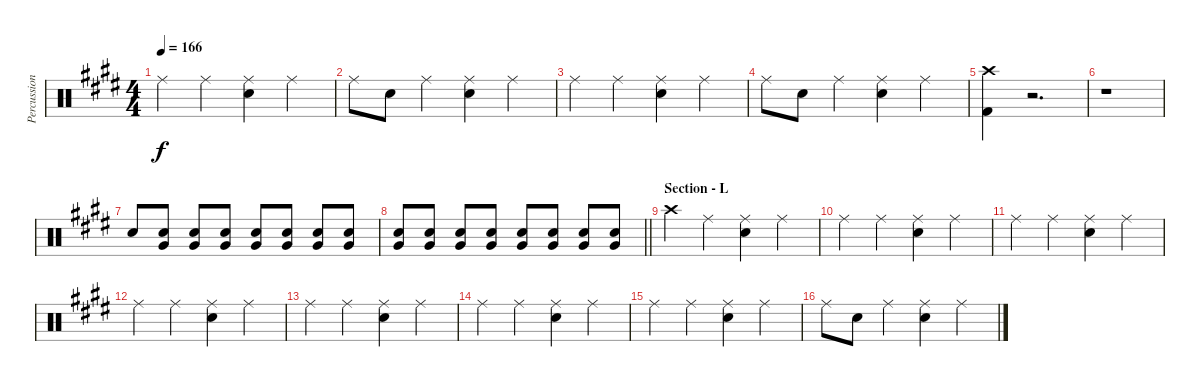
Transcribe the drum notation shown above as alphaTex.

\track ("Percussion - Other" "Percussion") {instrument percussion}
\staff {score}
\articulation defaults
\ts (4 4)
\tempo 166
\clef neutral
\ks e "Ride (middle)".4{dy f} "Ride (middle)".4
("Ride (middle)" "Snare (hit) 2").4 "Ride (middle)".4 |
"Ride (middle)".8 "Snare (hit) 2".8 "Ride (middle)".4 ("Ride (middle)" "Snare (hit) 2").4 "Ride (middle)".4 |
"Ride (middle)".4 "Ride (middle)".4 ("Ride (middle)" "Snare (hit) 2").4 "Ride (middle)".4 |
"Ride (middle)".8 "Snare (hit) 2".8 "Ride (middle)".4 ("Ride (middle)" "Snare (hit) 2").4 "Ride (middle)".4 |
("Crash high (hit)" "Kick (hit) 2").4 r.2{d} |
r.1 |
"Snare (hit) 2".8 ("Snare (hit) 2" "Very Low Tom (hit)").8 ("Snare (hit) 2" "Very Low Tom (hit)").8 ("Snare (hit) 2" "Very Low Tom (hit)").8 ("Snare (hit) 2" "Very Low Tom (hit)").8 ("Snare (hit) 2" "Very Low Tom (hit)").8 ("Snare (hit) 2" "Very Low Tom (hit)").8 ("Snare (hit) 2" "Very Low Tom (hit)").8 |
\barLineRight lightlight
("Snare (hit) 2" "Very Low Tom (hit)").8 ("Snare (hit) 2" "Very Low Tom (hit)").8 ("Snare (hit) 2" "Very Low Tom (hit)").8 ("Snare (hit) 2" "Very Low Tom (hit)").8 ("Snare (hit) 2" "Very Low Tom (hit)").8 ("Snare (hit) 2" "Very Low Tom (hit)").8 ("Snare (hit) 2" "Very Low Tom (hit)").8 ("Snare (hit) 2" "Very Low Tom (hit)").8 |
\section ("" "Section - L")
"Crash high (hit)".4 "Ride (middle)".4 ("Ride (middle)" "Snare (hit) 2").4 "Ride (middle)".4 |
"Ride (middle)".4 "Ride (middle)".4 ("Ride (middle)" "Snare (hit) 2").4 "Ride (middle)".4 |
"Ride (middle)".4 "Ride (middle)".4 ("Ride (middle)" "Snare (hit) 2").4 "Ride (middle)".4 |
"Ride (middle)".4 "Ride (middle)".4 ("Ride (middle)" "Snare (hit) 2").4 "Ride (middle)".4 |
"Ride (middle)".4 "Ride (middle)".4 ("Ride (middle)" "Snare (hit) 2").4 "Ride (middle)".4 |
"Ride (middle)".4 "Ride (middle)".4 ("Ride (middle)" "Snare (hit) 2").4 "Ride (middle)".4 |
"Ride (middle)".4 "Ride (middle)".4 ("Ride (middle)" "Snare (hit) 2").4 "Ride (middle)".4 |
"Ride (middle)".8 "Snare (hit) 2".8 "Ride (middle)".4 ("Ride (middle)" "Snare (hit) 2").4 "Ride (middle)".4
